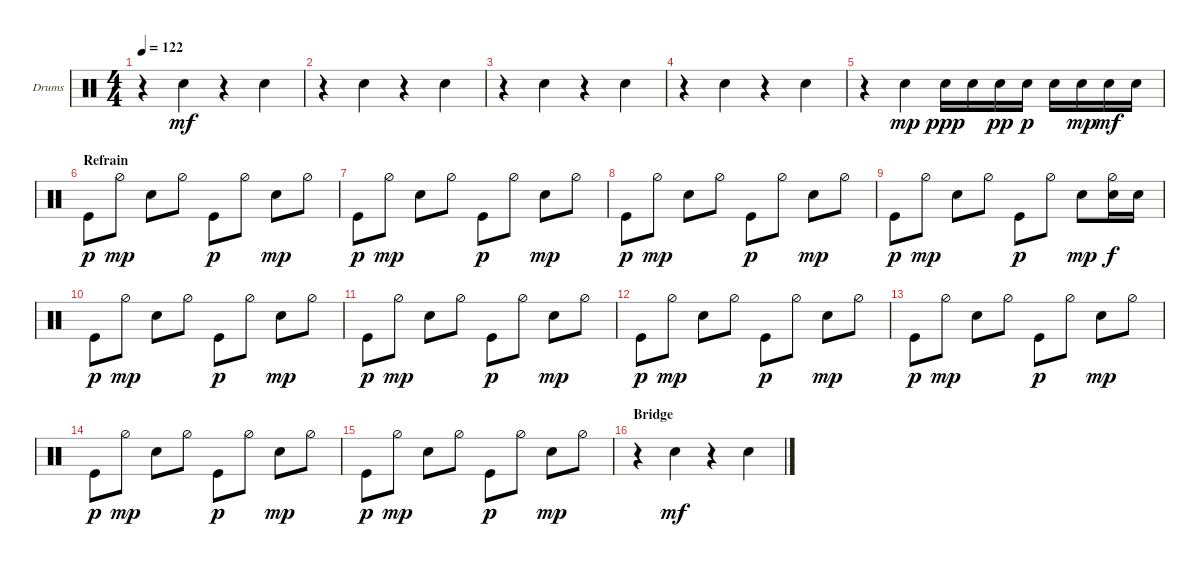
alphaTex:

\defaultSystemsLayout 4
\bracketExtendMode groupsimilarinstruments
\firstSystemTrackNameOrientation horizontal
\otherSystemsTrackNameOrientation horizontal
\track ("Drumkit" "Drums") {instrument percussion}
\staff {score}
\articulation defaults
\ts (4 4)
\tempo 122
\clef neutral
\ks c
r.4{dy mf} "Snare (hit) 2".4 r.4 "Snare (hit) 2".4 |
r.4 "Snare (hit) 2".4 r.4 "Snare (hit) 2".4 |
r.4 "Snare (hit) 2".4 r.4 "Snare (hit) 2".4 |
r.4 "Snare (hit) 2".4 r.4 "Snare (hit) 2".4 |
r.4 "Snare (hit) 2".4{dy mp} "Snare (hit) 2".16{dy ppp} "Snare (hit) 2".16 "Snare (hit) 2".16{dy pp} "Snare (hit) 2".16{dy p} "Snare (hit) 2".16 "Snare (hit) 2".16{dy mp} "Snare (hit) 2".16{dy mf} "Snare (hit) 2".16 |
\section ("" "Refrain")
\scale
0.237113 "Kick (hit)".8{dy p} "Hi-Hat (half)".8{dy mp} "Snare (hit) 2".8 "Hi-Hat (half)".8 "Kick (hit)".8{dy p} "Hi-Hat (half)".8 "Snare (hit) 2".8{dy mp} "Hi-Hat (half)".8 |
"Kick (hit)".8{dy p} "Hi-Hat (half)".8{dy mp} "Snare (hit) 2".8 "Hi-Hat (half)".8 "Kick (hit)".8{dy p} "Hi-Hat (half)".8 "Snare (hit) 2".8{dy mp} "Hi-Hat (half)".8 |
"Kick (hit)".8{dy p} "Hi-Hat (half)".8{dy mp} "Snare (hit) 2".8 "Hi-Hat (half)".8 "Kick (hit)".8{dy p} "Hi-Hat (half)".8 "Snare (hit) 2".8{dy mp} "Hi-Hat (half)".8 |
"Kick (hit)".8{dy p} "Hi-Hat (half)".8{dy mp} "Snare (hit) 2".8 "Hi-Hat (half)".8 "Kick (hit)".8{dy p} "Hi-Hat (half)".8 "Snare (hit) 2".8{dy mp} ("Hi-Hat (half)" "Snare (hit) 2").16{dy f} "Snare (hit) 2".16 |
"Kick (hit)".8{dy p} "Hi-Hat (half)".8{dy mp} "Snare (hit) 2".8 "Hi-Hat (half)".8 "Kick (hit)".8{dy p} "Hi-Hat (half)".8 "Snare (hit) 2".8{dy mp} "Hi-Hat (half)".8 |
"Kick (hit)".8{dy p} "Hi-Hat (half)".8{dy mp} "Snare (hit) 2".8 "Hi-Hat (half)".8 "Kick (hit)".8{dy p} "Hi-Hat (half)".8 "Snare (hit) 2".8{dy mp} "Hi-Hat (half)".8 |
"Kick (hit)".8{dy p} "Hi-Hat (half)".8{dy mp} "Snare (hit) 2".8 "Hi-Hat (half)".8 "Kick (hit)".8{dy p} "Hi-Hat (half)".8 "Snare (hit) 2".8{dy mp} "Hi-Hat (half)".8 |
"Kick (hit)".8{dy p} "Hi-Hat (half)".8{dy mp} "Snare (hit) 2".8 "Hi-Hat (half)".8 "Kick (hit)".8{dy p} "Hi-Hat (half)".8 "Snare (hit) 2".8{dy mp} "Hi-Hat (half)".8 |
"Kick (hit)".8{dy p} "Hi-Hat (half)".8{dy mp} "Snare (hit) 2".8 "Hi-Hat (half)".8 "Kick (hit)".8{dy p} "Hi-Hat (half)".8 "Snare (hit) 2".8{dy mp} "Hi-Hat (half)".8 |
"Kick (hit)".8{dy p} "Hi-Hat (half)".8{dy mp} "Snare (hit) 2".8 "Hi-Hat (half)".8 "Kick (hit)".8{dy p} "Hi-Hat (half)".8 "Snare (hit) 2".8{dy mp} "Hi-Hat (half)".8 |
\section ("" "Bridge")
r.4 "Snare (hit) 2".4{dy mf} r.4 "Snare (hit) 2".4
